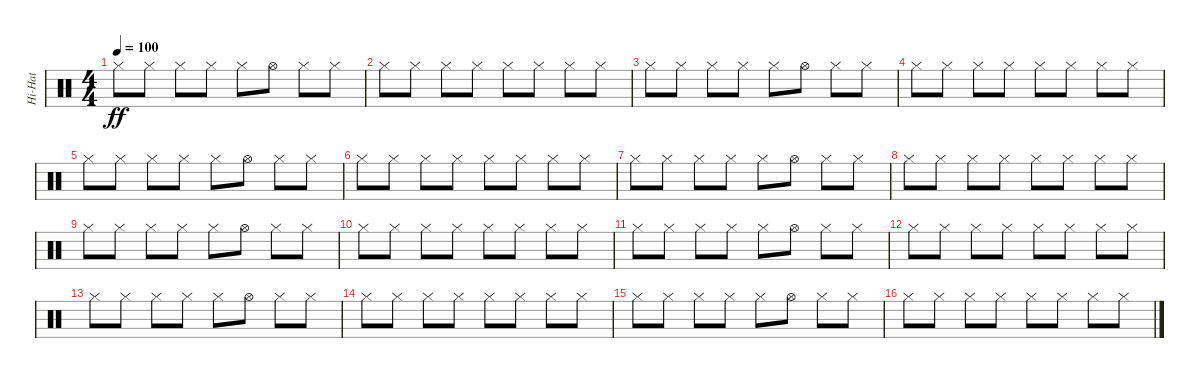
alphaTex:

\track ("Hi-Hat" "Hi-Hat") {instrument percussion}
\staff {score}
\articulation defaults
\ts (4 4)
\tempo 100
\clef neutral
\ks c "Hi-Hat (closed)".8{dy ff} "Hi-Hat (closed)".8 "Hi-Hat (closed)".8 "Hi-Hat (closed)".8 "Hi-Hat (closed)".8 "Hi-Hat (open)".8 "Hi-Hat (closed)".8 "Hi-Hat (closed)".8
|
"Hi-Hat (closed)".8 "Hi-Hat (closed)".8 "Hi-Hat (closed)".8 "Hi-Hat (closed)".8 "Hi-Hat (closed)".8 "Hi-Hat (closed)".8 "Hi-Hat (closed)".8 "Hi-Hat (closed)".8 |
"Hi-Hat (closed)".8 "Hi-Hat (closed)".8 "Hi-Hat (closed)".8 "Hi-Hat (closed)".8 "Hi-Hat (closed)".8 "Hi-Hat (open)".8 "Hi-Hat (closed)".8 "Hi-Hat (closed)".8 |
"Hi-Hat (closed)".8 "Hi-Hat (closed)".8 "Hi-Hat (closed)".8 "Hi-Hat (closed)".8 "Hi-Hat (closed)".8 "Hi-Hat (closed)".8 "Hi-Hat (closed)".8 "Hi-Hat (closed)".8 |
"Hi-Hat (closed)".8 "Hi-Hat (closed)".8 "Hi-Hat (closed)".8 "Hi-Hat (closed)".8 "Hi-Hat (closed)".8 "Hi-Hat (open)".8 "Hi-Hat (closed)".8 "Hi-Hat (closed)".8 |
"Hi-Hat (closed)".8 "Hi-Hat (closed)".8 "Hi-Hat (closed)".8 "Hi-Hat (closed)".8 "Hi-Hat (closed)".8 "Hi-Hat (closed)".8 "Hi-Hat (closed)".8 "Hi-Hat (closed)".8 |
"Hi-Hat (closed)".8 "Hi-Hat (closed)".8 "Hi-Hat (closed)".8 "Hi-Hat (closed)".8 "Hi-Hat (closed)".8 "Hi-Hat (open)".8 "Hi-Hat (closed)".8 "Hi-Hat (closed)".8 |
"Hi-Hat (closed)".8 "Hi-Hat (closed)".8 "Hi-Hat (closed)".8 "Hi-Hat (closed)".8 "Hi-Hat (closed)".8 "Hi-Hat (closed)".8 "Hi-Hat (closed)".8 "Hi-Hat (closed)".8 |
"Hi-Hat (closed)".8 "Hi-Hat (closed)".8 "Hi-Hat (closed)".8 "Hi-Hat (closed)".8 "Hi-Hat (closed)".8 "Hi-Hat (open)".8 "Hi-Hat (closed)".8 "Hi-Hat (closed)".8 |
"Hi-Hat (closed)".8 "Hi-Hat (closed)".8 "Hi-Hat (closed)".8 "Hi-Hat (closed)".8 "Hi-Hat (closed)".8 "Hi-Hat (closed)".8 "Hi-Hat (closed)".8 "Hi-Hat (closed)".8 |
"Hi-Hat (closed)".8 "Hi-Hat (closed)".8 "Hi-Hat (closed)".8 "Hi-Hat (closed)".8 "Hi-Hat (closed)".8 "Hi-Hat (open)".8 "Hi-Hat (closed)".8 "Hi-Hat (closed)".8 |
"Hi-Hat (closed)".8 "Hi-Hat (closed)".8 "Hi-Hat (closed)".8 "Hi-Hat (closed)".8 "Hi-Hat (closed)".8 "Hi-Hat (closed)".8 "Hi-Hat (closed)".8 "Hi-Hat (closed)".8 |
"Hi-Hat (closed)".8 "Hi-Hat (closed)".8 "Hi-Hat (closed)".8 "Hi-Hat (closed)".8 "Hi-Hat (closed)".8 "Hi-Hat (open)".8 "Hi-Hat (closed)".8 "Hi-Hat (closed)".8 |
"Hi-Hat (closed)".8 "Hi-Hat (closed)".8 "Hi-Hat (closed)".8 "Hi-Hat (closed)".8 "Hi-Hat (closed)".8 "Hi-Hat (closed)".8 "Hi-Hat (closed)".8 "Hi-Hat (closed)".8 |
"Hi-Hat (closed)".8 "Hi-Hat (closed)".8 "Hi-Hat (closed)".8 "Hi-Hat (closed)".8 "Hi-Hat (closed)".8 "Hi-Hat (open)".8 "Hi-Hat (closed)".8 "Hi-Hat (closed)".8 |
"Hi-Hat (closed)".8 "Hi-Hat (closed)".8 "Hi-Hat (closed)".8 "Hi-Hat (closed)".8 "Hi-Hat (closed)".8 "Hi-Hat (closed)".8 "Hi-Hat (closed)".8 "Hi-Hat (closed)".8
